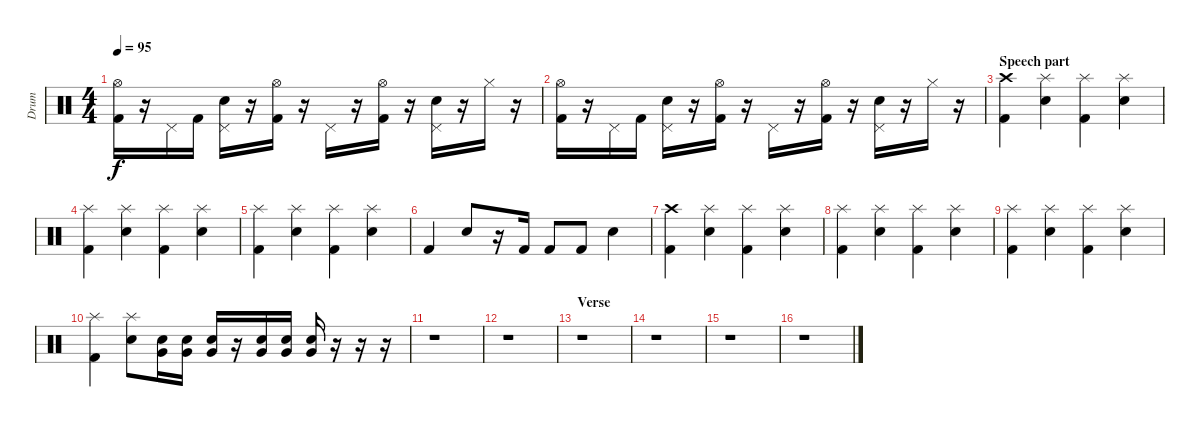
\track ("Drum" "Drum") {instrument percussion}
\staff {score}
\articulation defaults
\ts (4 4)
\tempo 95
\clef neutral
\ks c
("Hi-Hat (open)" "Kick (hit) 2").16{dy f} r.16 "Pedal Hi-Hat (hit)".16 "Kick (hit) 2".16 ("Pedal Hi-Hat (hit)" "Electric Snare (hit)").16 r.16 ("Hi-Hat (open)" "Kick (hit) 2").16 r.16 "Pedal Hi-Hat (hit)".16 r.16 ("Hi-Hat (open)" "Kick (hit) 2").16 r.16 ("Pedal Hi-Hat (hit)" "Electric Snare (hit)").16 r.16 "Hi-Hat (closed)".16 r.16 |
("Hi-Hat (open)" "Kick (hit) 2").16 r.16 "Pedal Hi-Hat (hit)".16 "Kick (hit) 2".16 ("Pedal Hi-Hat (hit)" "Electric Snare (hit)").16 r.16 ("Hi-Hat (open)" "Kick (hit) 2").16 r.16 "Pedal Hi-Hat (hit)".16 r.16 ("Hi-Hat (open)" "Kick (hit) 2").16 r.16 ("Pedal Hi-Hat (hit)" "Electric Snare (hit)").16 r.16 "Hi-Hat (closed)".16 r.16 |
\section ("" "Speech part")
("Crash high (hit)" "Kick (hit) 2").4 ("Splash (hit)" "Electric Snare (hit)").4 ("Splash (hit)" "Kick (hit) 2").4 ("Splash (hit)" "Electric Snare (hit)").4 |
("Splash (hit)" "Kick (hit) 2").4 ("Splash (hit)" "Electric Snare (hit)").4 ("Splash (hit)" "Kick (hit) 2").4 ("Splash (hit)" "Electric Snare (hit)").4 |
("Splash (hit)" "Kick (hit) 2").4 ("Splash (hit)" "Electric Snare (hit)").4 ("Splash (hit)" "Kick (hit) 2").4 ("Splash (hit)" "Electric Snare (hit)").4 |
"Kick (hit) 2".4 "Electric Snare (hit)".8 r.16 "Kick (hit) 2".16 "Kick (hit) 2".8 "Kick (hit) 2".8 "Electric Snare (hit)".4 |
("Crash high (hit)" "Kick (hit) 2").4 ("Splash (hit)" "Electric Snare (hit)").4 ("Splash (hit)" "Kick (hit) 2").4 ("Splash (hit)" "Electric Snare (hit)").4 |
("Splash (hit)" "Kick (hit) 2").4 ("Splash (hit)" "Electric Snare (hit)").4 ("Splash (hit)" "Kick (hit) 2").4 ("Splash (hit)" "Electric Snare (hit)").4 |
("Splash (hit)" "Kick (hit) 2").4 ("Splash (hit)" "Electric Snare (hit)").4 ("Splash (hit)" "Kick (hit) 2").4 ("Splash (hit)" "Electric Snare (hit)").4 |
("Splash (hit)" "Kick (hit) 2").4 ("Splash (hit)" "Electric Snare (hit)").8 ("Electric Snare (hit)" "Very Low Tom (hit)").16 ("Electric Snare (hit)" "Very Low Tom (hit)").16 ("Electric Snare (hit)" "Very Low Tom (hit)").16 r.16 ("Electric Snare (hit)" "Very Low Tom (hit)").16 ("Electric Snare (hit)" "Very Low Tom (hit)").16 ("Electric Snare (hit)" "Very Low Tom (hit)").16 r.16 r.16 r.16 |
r.1 |
r.1 |
\section ("" "Verse")
r.1 |
r.1 |
r.1 |
r.1
